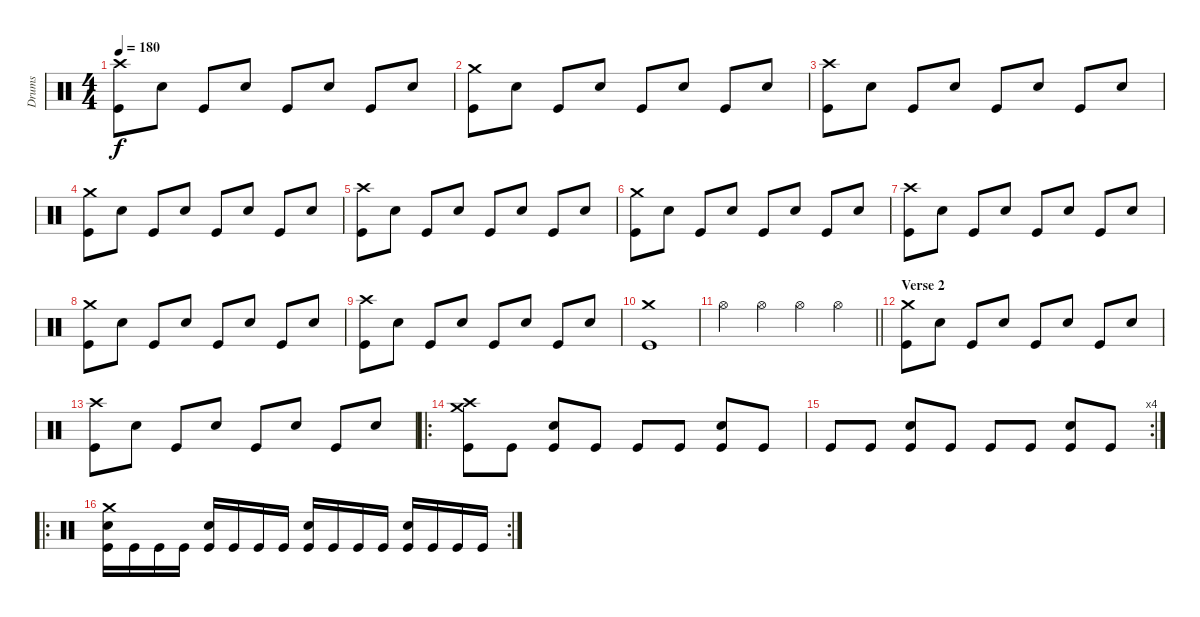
\track ("Drums" "Drums") {instrument percussion}
\staff {score}
\articulation defaults
\ts (4 4)
\tempo 180
\clef neutral
\ks c
("Crash high (hit)" "Kick (hit)").8{dy f} "Electric Snare (hit)".8 "Kick (hit)".8 "Electric Snare (hit)".8 "Kick (hit)".8 "Electric Snare (hit)".8 "Kick (hit)".8 "Electric Snare (hit)".8 |
("Crash medium (hit)" "Kick (hit)").8 "Electric Snare (hit)".8 "Kick (hit)".8 "Electric Snare (hit)".8 "Kick (hit)".8 "Electric Snare (hit)".8 "Kick (hit)".8 "Electric Snare (hit)".8 |
("Crash high (hit)" "Kick (hit)").8 "Electric Snare (hit)".8 "Kick (hit)".8 "Electric Snare (hit)".8 "Kick (hit)".8 "Electric Snare (hit)".8 "Kick (hit)".8 "Electric Snare (hit)".8 |
("Crash medium (hit)" "Kick (hit)").8 "Electric Snare (hit)".8 "Kick (hit)".8 "Electric Snare (hit)".8 "Kick (hit)".8 "Electric Snare (hit)".8 "Kick (hit)".8 "Electric Snare (hit)".8 |
("Crash high (hit)" "Kick (hit)").8 "Electric Snare (hit)".8 "Kick (hit)".8 "Electric Snare (hit)".8 "Kick (hit)".8 "Electric Snare (hit)".8 "Kick (hit)".8 "Electric Snare (hit)".8 |
("Crash medium (hit)" "Kick (hit)").8 "Electric Snare (hit)".8 "Kick (hit)".8 "Electric Snare (hit)".8 "Kick (hit)".8 "Electric Snare (hit)".8 "Kick (hit)".8 "Electric Snare (hit)".8 |
("Crash high (hit)" "Kick (hit)").8 "Electric Snare (hit)".8 "Kick (hit)".8 "Electric Snare (hit)".8 "Kick (hit)".8 "Electric Snare (hit)".8 "Kick (hit)".8 "Electric Snare (hit)".8 |
("Crash medium (hit)" "Kick (hit)").8 "Electric Snare (hit)".8 "Kick (hit)".8 "Electric Snare (hit)".8 "Kick (hit)".8 "Electric Snare (hit)".8 "Kick (hit)".8 "Electric Snare (hit)".8 |
("Crash high (hit)" "Kick (hit)").8 "Electric Snare (hit)".8 "Kick (hit)".8 "Electric Snare (hit)".8 "Kick (hit)".8 "Electric Snare (hit)".8 "Kick (hit)".8 "Electric Snare (hit)".8 |
("Crash medium (hit)" "Kick (hit)").1 |
\barLineRight lightlight "Hi-Hat (open)".4 "Hi-Hat (open)".4 "Hi-Hat (open)".4 "Hi-Hat (open)".4
|
\section ("" "Verse 2")
("Crash medium (hit)" "Kick (hit)").8 "Electric Snare (hit)".8 "Kick (hit)".8 "Electric Snare (hit)".8 "Kick (hit)".8 "Electric Snare (hit)".8 "Kick (hit)".8 "Electric Snare (hit)".8 |
("Crash high (hit)" "Kick (hit)").8 "Electric Snare (hit)".8 "Kick (hit)".8 "Electric Snare (hit)".8 "Kick (hit)".8 "Electric Snare (hit)".8 "Kick (hit)".8 "Electric Snare (hit)".8 |
\ro
("Crash medium (hit)" "Crash high (hit)" "Kick (hit)").8 "Kick (hit)".8 ("Electric Snare (hit)" "Kick (hit)").8 "Kick (hit)".8 "Kick (hit)".8 "Kick (hit)".8 ("Electric Snare (hit)" "Kick (hit)").8 "Kick (hit)".8 |
\rc 4 "Kick (hit)".8 "Kick (hit)".8
("Electric Snare (hit)" "Kick (hit)").8 "Kick (hit)".8 "Kick (hit)".8 "Kick (hit)".8 ("Electric Snare (hit)" "Kick (hit)").8 "Kick (hit)".8 |
\ro
\rc 2
("Crash medium (hit)" "Electric Snare (hit)" "Kick (hit)").16 "Kick (hit)".16 "Kick (hit)".16 "Kick (hit)".16 ("Electric Snare (hit)" "Kick (hit)").16 "Kick (hit)".16 "Kick (hit)".16 "Kick (hit)".16 ("Electric Snare (hit)" "Kick (hit)").16 "Kick (hit)".16 "Kick (hit)".16 "Kick (hit)".16 ("Electric Snare (hit)" "Kick (hit)").16 "Kick (hit)".16 "Kick (hit)".16 "Kick (hit)".16
